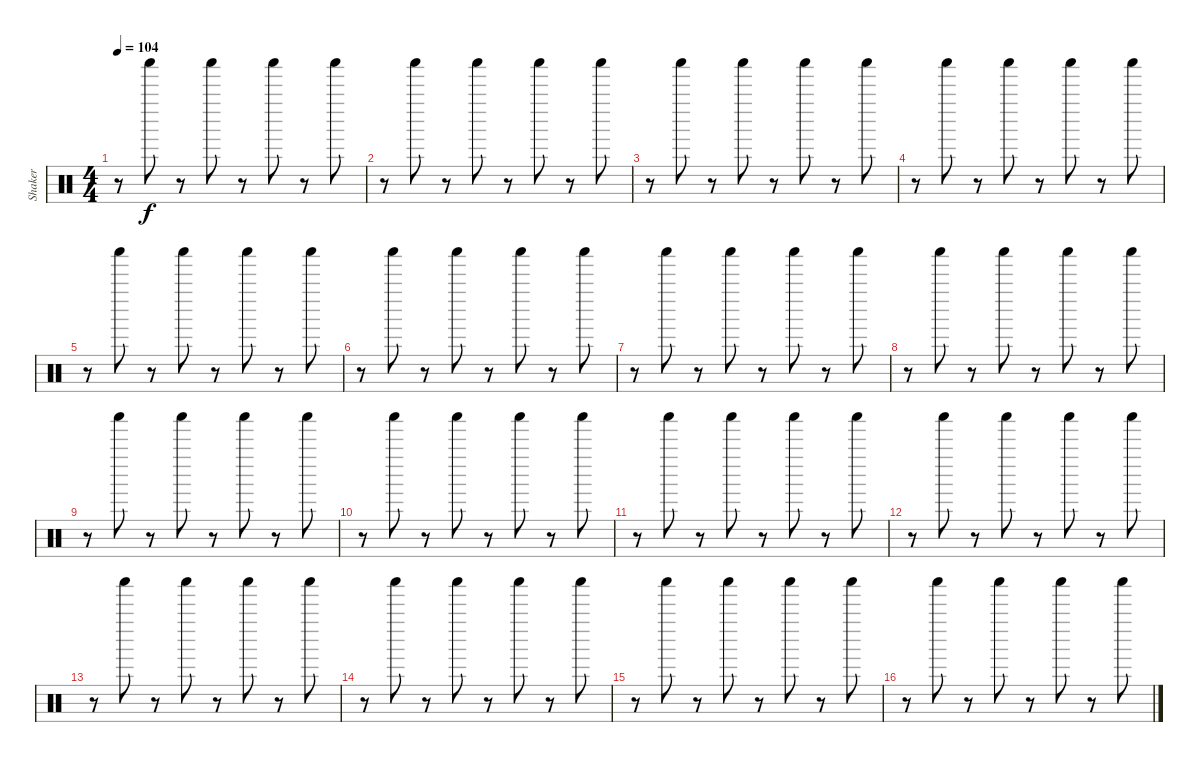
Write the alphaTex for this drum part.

\track ("Shaker" "Shaker") {instrument percussion}
\staff {score}
\articulation defaults
\ts (4 4)
\tempo 104
\clef neutral
\ks c
r.8{dy f} "Shaker (hit)".8 r.8 "Shaker (hit)".8 r.8 "Shaker (hit)".8 r.8 "Shaker (hit)".8 |
r.8 "Shaker (hit)".8 r.8 "Shaker (hit)".8 r.8 "Shaker (hit)".8 r.8 "Shaker (hit)".8 |
r.8 "Shaker (hit)".8 r.8 "Shaker (hit)".8 r.8 "Shaker (hit)".8 r.8 "Shaker (hit)".8 |
r.8 "Shaker (hit)".8 r.8 "Shaker (hit)".8 r.8 "Shaker (hit)".8 r.8 "Shaker (hit)".8 |
r.8 "Shaker (hit)".8 r.8 "Shaker (hit)".8 r.8 "Shaker (hit)".8 r.8 "Shaker (hit)".8 |
r.8 "Shaker (hit)".8 r.8 "Shaker (hit)".8 r.8 "Shaker (hit)".8 r.8 "Shaker (hit)".8 |
r.8 "Shaker (hit)".8 r.8 "Shaker (hit)".8 r.8 "Shaker (hit)".8 r.8 "Shaker (hit)".8 |
r.8 "Shaker (hit)".8 r.8 "Shaker (hit)".8 r.8 "Shaker (hit)".8 r.8 "Shaker (hit)".8 |
r.8 "Shaker (hit)".8 r.8 "Shaker (hit)".8 r.8 "Shaker (hit)".8 r.8 "Shaker (hit)".8 |
r.8 "Shaker (hit)".8 r.8 "Shaker (hit)".8 r.8 "Shaker (hit)".8 r.8 "Shaker (hit)".8 |
r.8 "Shaker (hit)".8 r.8 "Shaker (hit)".8 r.8 "Shaker (hit)".8 r.8 "Shaker (hit)".8 |
r.8 "Shaker (hit)".8 r.8 "Shaker (hit)".8 r.8 "Shaker (hit)".8 r.8 "Shaker (hit)".8 |
r.8 "Shaker (hit)".8 r.8 "Shaker (hit)".8 r.8 "Shaker (hit)".8 r.8 "Shaker (hit)".8 |
r.8 "Shaker (hit)".8 r.8 "Shaker (hit)".8 r.8 "Shaker (hit)".8 r.8 "Shaker (hit)".8 |
r.8 "Shaker (hit)".8 r.8 "Shaker (hit)".8 r.8 "Shaker (hit)".8 r.8 "Shaker (hit)".8 |
r.8 "Shaker (hit)".8 r.8 "Shaker (hit)".8 r.8 "Shaker (hit)".8 r.8 "Shaker (hit)".8
